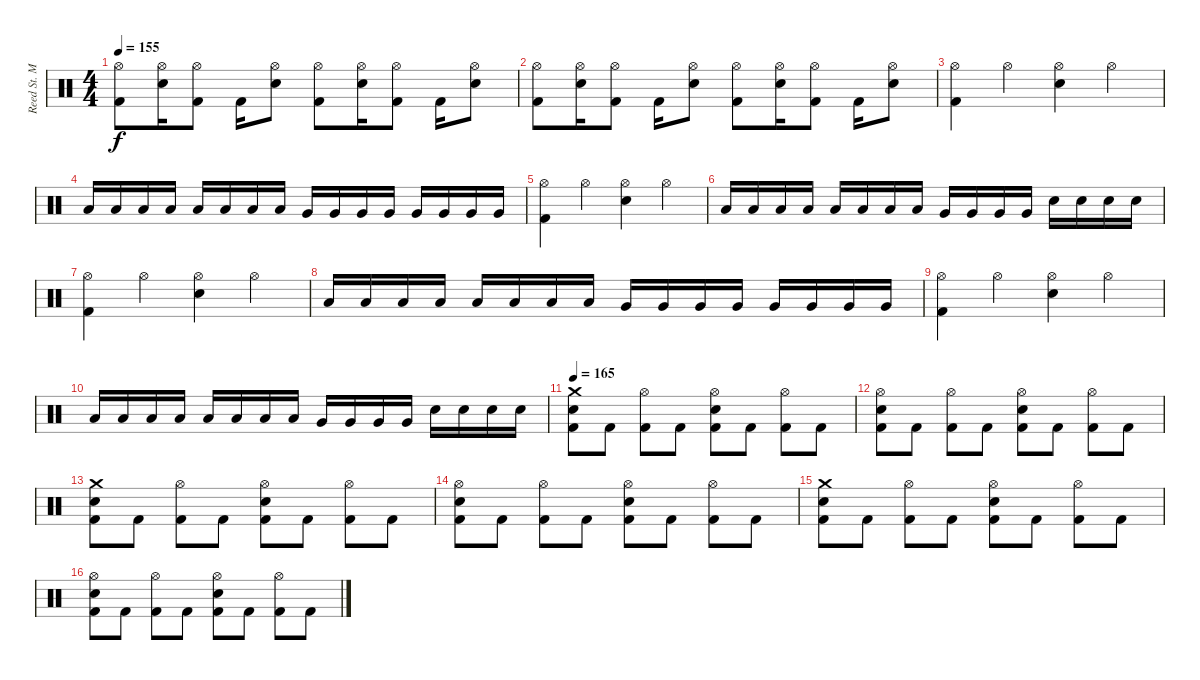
\track ("Reed St. Mark" "Reed St. M") {instrument percussion}
\staff {score}
\articulation defaults
\ts (4 4)
\tempo 155
\clef neutral
\ks c
("Hi-Hat (open)" "Kick (hit) 2").8{dy f} ("Hi-Hat (open)" "Snare (hit) 2").16 ("Hi-Hat (open)" "Kick (hit) 2").8 "Kick (hit) 2".16 ("Hi-Hat (open)" "Snare (hit) 2").8 ("Hi-Hat (open)" "Kick (hit) 2").8 ("Hi-Hat (open)" "Snare (hit) 2").16 ("Hi-Hat (open)" "Kick (hit) 2").8 "Kick (hit) 2".16 ("Hi-Hat (open)" "Snare (hit) 2").8 |
("Hi-Hat (open)" "Kick (hit) 2").8 ("Hi-Hat (open)" "Snare (hit) 2").16 ("Hi-Hat (open)" "Kick (hit) 2").8 "Kick (hit) 2".16 ("Hi-Hat (open)" "Snare (hit) 2").8 ("Hi-Hat (open)" "Kick (hit) 2").8 ("Hi-Hat (open)" "Snare (hit) 2").16 ("Hi-Hat (open)" "Kick (hit) 2").8 "Kick (hit) 2".16 ("Hi-Hat (open)" "Snare (hit) 2").8 |
("Hi-Hat (open)" "Kick (hit) 2").4 "Hi-Hat (open)".4 ("Hi-Hat (open)" "Snare (hit) 2").4 "Hi-Hat (open)".4 |
"Low Tom (hit)".16 "Low Tom (hit)".16 "Low Tom (hit)".16 "Low Tom (hit)".16 "Low Tom (hit)".16 "Low Tom (hit)".16 "Low Tom (hit)".16 "Low Tom (hit)".16 "Very Low Tom (hit)".16 "Very Low Tom (hit)".16 "Very Low Tom (hit)".16 "Very Low Tom (hit)".16 "Very Low Tom (hit)".16 "Very Low Tom (hit)".16 "Very Low Tom (hit)".16 "Very Low Tom (hit)".16 |
("Hi-Hat (open)" "Kick (hit) 2").4 "Hi-Hat (open)".4 ("Hi-Hat (open)" "Snare (hit) 2").4 "Hi-Hat (open)".4 |
"Low Tom (hit)".16 "Low Tom (hit)".16 "Low Tom (hit)".16 "Low Tom (hit)".16 "Low Tom (hit)".16 "Low Tom (hit)".16 "Low Tom (hit)".16 "Low Tom (hit)".16 "Very Low Tom (hit)".16 "Very Low Tom (hit)".16 "Very Low Tom (hit)".16 "Very Low Tom (hit)".16 "Snare (hit) 2".16 "Snare (hit) 2".16 "Snare (hit) 2".16 "Snare (hit) 2".16 |
("Hi-Hat (open)" "Kick (hit) 2").4 "Hi-Hat (open)".4 ("Hi-Hat (open)" "Snare (hit) 2").4 "Hi-Hat (open)".4 |
"Low Tom (hit)".16 "Low Tom (hit)".16 "Low Tom (hit)".16 "Low Tom (hit)".16 "Low Tom (hit)".16 "Low Tom (hit)".16 "Low Tom (hit)".16 "Low Tom (hit)".16 "Very Low Tom (hit)".16 "Very Low Tom (hit)".16 "Very Low Tom (hit)".16 "Very Low Tom (hit)".16 "Very Low Tom (hit)".16 "Very Low Tom (hit)".16 "Very Low Tom (hit)".16 "Very Low Tom (hit)".16 |
("Hi-Hat (open)" "Kick (hit) 2").4 "Hi-Hat (open)".4 ("Hi-Hat (open)" "Snare (hit) 2").4 "Hi-Hat (open)".4 |
"Low Tom (hit)".16 "Low Tom (hit)".16 "Low Tom (hit)".16 "Low Tom (hit)".16 "Low Tom (hit)".16 "Low Tom (hit)".16 "Low Tom (hit)".16 "Low Tom (hit)".16 "Very Low Tom (hit)".16 "Very Low Tom (hit)".16 "Very Low Tom (hit)".16 "Very Low Tom (hit)".16 "Snare (hit) 2".16 "Snare (hit) 2".16 "Snare (hit) 2".16 "Snare (hit) 2".16 |
\tempo 165
("Crash medium (hit)" "Snare (hit) 2" "Kick (hit) 2").8 "Kick (hit) 2".8 ("Hi-Hat (open)" "Kick (hit) 2").8 "Kick (hit) 2".8 ("Hi-Hat (open)" "Snare (hit) 2" "Kick (hit) 2").8 "Kick (hit) 2".8 ("Hi-Hat (open)" "Kick (hit) 2").8 "Kick (hit) 2".8 |
("Hi-Hat (open)" "Snare (hit) 2" "Kick (hit) 2").8 "Kick (hit) 2".8 ("Hi-Hat (open)" "Kick (hit) 2").8 "Kick (hit) 2".8 ("Hi-Hat (open)" "Snare (hit) 2" "Kick (hit) 2").8 "Kick (hit) 2".8 ("Hi-Hat (open)" "Kick (hit) 2").8 "Kick (hit) 2".8 |
("Crash medium (hit)" "Snare (hit) 2" "Kick (hit) 2").8 "Kick (hit) 2".8 ("Hi-Hat (open)" "Kick (hit) 2").8 "Kick (hit) 2".8 ("Hi-Hat (open)" "Snare (hit) 2" "Kick (hit) 2").8 "Kick (hit) 2".8 ("Hi-Hat (open)" "Kick (hit) 2").8 "Kick (hit) 2".8 |
("Hi-Hat (open)" "Snare (hit) 2" "Kick (hit) 2").8 "Kick (hit) 2".8 ("Hi-Hat (open)" "Kick (hit) 2").8 "Kick (hit) 2".8 ("Hi-Hat (open)" "Snare (hit) 2" "Kick (hit) 2").8 "Kick (hit) 2".8 ("Hi-Hat (open)" "Kick (hit) 2").8 "Kick (hit) 2".8 |
("Crash medium (hit)" "Snare (hit) 2" "Kick (hit) 2").8 "Kick (hit) 2".8 ("Hi-Hat (open)" "Kick (hit) 2").8 "Kick (hit) 2".8 ("Hi-Hat (open)" "Snare (hit) 2" "Kick (hit) 2").8 "Kick (hit) 2".8 ("Hi-Hat (open)" "Kick (hit) 2").8 "Kick (hit) 2".8 |
("Hi-Hat (open)" "Snare (hit) 2" "Kick (hit) 2").8 "Kick (hit) 2".8 ("Hi-Hat (open)" "Kick (hit) 2").8 "Kick (hit) 2".8 ("Hi-Hat (open)" "Snare (hit) 2" "Kick (hit) 2").8 "Kick (hit) 2".8 ("Hi-Hat (open)" "Kick (hit) 2").8 "Kick (hit) 2".8
